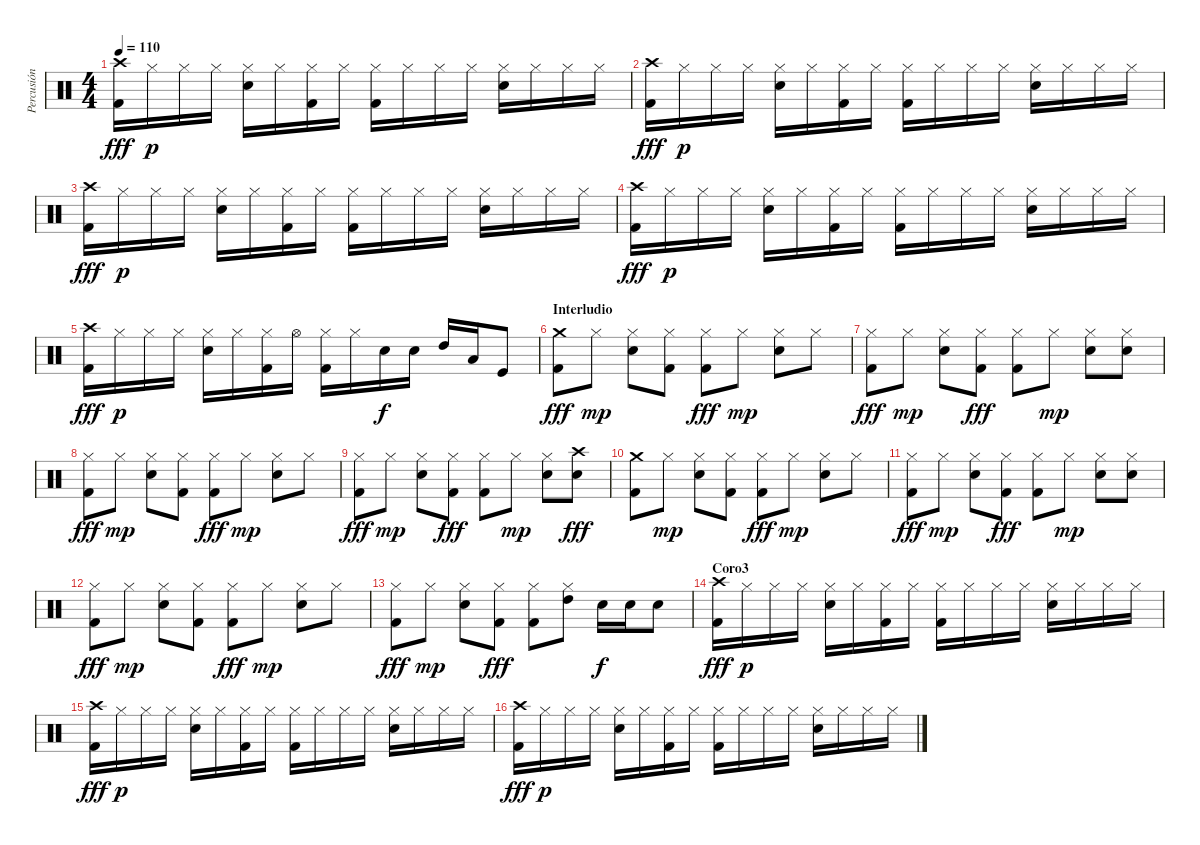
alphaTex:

\track ("Percusión" "Percusión") {instrument percussion}
\staff {score}
\articulation defaults
\ts (4 4)
\tempo 110
\clef neutral
\ks c
("Crash high (hit)" "Kick (hit) 2").16{dy fff} "Hi-Hat (closed)".16{dy p} "Hi-Hat (closed)".16 "Hi-Hat (closed)".16 ("Hi-Hat (closed)" "Snare (hit) 2").16 "Hi-Hat (closed)".16 ("Hi-Hat (closed)" "Kick (hit) 2").16 "Hi-Hat (closed)".16 ("Hi-Hat (closed)" "Kick (hit) 2").16 "Hi-Hat (closed)".16 "Hi-Hat (closed)".16 "Hi-Hat (closed)".16 ("Hi-Hat (closed)" "Snare (hit) 2").16 "Hi-Hat (closed)".16 "Hi-Hat (closed)".16 "Hi-Hat (closed)".16 |
("Crash high (hit)" "Kick (hit) 2").16{dy fff} "Hi-Hat (closed)".16{dy p} "Hi-Hat (closed)".16 "Hi-Hat (closed)".16 ("Hi-Hat (closed)" "Snare (hit) 2").16 "Hi-Hat (closed)".16 ("Hi-Hat (closed)" "Kick (hit) 2").16 "Hi-Hat (closed)".16 ("Hi-Hat (closed)" "Kick (hit) 2").16 "Hi-Hat (closed)".16 "Hi-Hat (closed)".16 "Hi-Hat (closed)".16 ("Hi-Hat (closed)" "Snare (hit) 2").16 "Hi-Hat (closed)".16 "Hi-Hat (closed)".16 "Hi-Hat (closed)".16 |
("Crash high (hit)" "Kick (hit) 2").16{dy fff} "Hi-Hat (closed)".16{dy p} "Hi-Hat (closed)".16 "Hi-Hat (closed)".16 ("Hi-Hat (closed)" "Snare (hit) 2").16 "Hi-Hat (closed)".16 ("Hi-Hat (closed)" "Kick (hit) 2").16 "Hi-Hat (closed)".16 ("Hi-Hat (closed)" "Kick (hit) 2").16 "Hi-Hat (closed)".16 "Hi-Hat (closed)".16 "Hi-Hat (closed)".16 ("Hi-Hat (closed)" "Snare (hit) 2").16 "Hi-Hat (closed)".16 "Hi-Hat (closed)".16 "Hi-Hat (closed)".16 |
("Crash high (hit)" "Kick (hit) 2").16{dy fff} "Hi-Hat (closed)".16{dy p} "Hi-Hat (closed)".16 "Hi-Hat (closed)".16 ("Hi-Hat (closed)" "Snare (hit) 2").16 "Hi-Hat (closed)".16 ("Hi-Hat (closed)" "Kick (hit) 2").16 "Hi-Hat (closed)".16 ("Hi-Hat (closed)" "Kick (hit) 2").16 "Hi-Hat (closed)".16 "Hi-Hat (closed)".16 "Hi-Hat (closed)".16 ("Hi-Hat (closed)" "Snare (hit) 2").16 "Hi-Hat (closed)".16 "Hi-Hat (closed)".16 "Hi-Hat (closed)".16 |
("Crash high (hit)" "Kick (hit) 2").16{dy fff} "Hi-Hat (closed)".16{dy p} "Hi-Hat (closed)".16 "Hi-Hat (closed)".16 ("Hi-Hat (closed)" "Snare (hit) 2").16 "Hi-Hat (closed)".16 ("Hi-Hat (closed)" "Kick (hit) 2").16 "Hi-Hat (open)".16 ("Hi-Hat (closed)" "Kick (hit) 2").16 "Hi-Hat (closed)".16 "Snare (hit) 2".16{dy f} "Snare (hit) 2".16 "High Tom (hit)".16 "Low Tom (hit)".16 "Kick (hit)".8 |
\section ("" "Interludio")
("Crash medium (hit)" "Kick (hit) 2").8{dy fff} "Hi-Hat (closed)".8{dy mp} ("Hi-Hat (closed)" "Snare (hit) 2").8 ("Hi-Hat (closed)" "Kick (hit) 2").8 ("Hi-Hat (closed)" "Kick (hit) 2").8{dy fff} "Hi-Hat (closed)".8{dy mp} ("Hi-Hat (closed)" "Snare (hit) 2").8 "Hi-Hat (closed)".8 |
("Hi-Hat (closed)" "Kick (hit) 2").8{dy fff} "Hi-Hat (closed)".8{dy mp} ("Hi-Hat (closed)" "Snare (hit) 2").8 ("Hi-Hat (closed)" "Kick (hit) 2").8{dy fff} ("Hi-Hat (closed)" "Kick (hit) 2").8 "Hi-Hat (closed)".8{dy mp} ("Hi-Hat (closed)" "Snare (hit) 2").8 ("Hi-Hat (closed)" "Snare (hit) 2").8 |
("Hi-Hat (closed)" "Kick (hit) 2").8{dy fff} "Hi-Hat (closed)".8{dy mp} ("Hi-Hat (closed)" "Snare (hit) 2").8 ("Hi-Hat (closed)" "Kick (hit) 2").8 ("Hi-Hat (closed)" "Kick (hit) 2").8{dy fff} "Hi-Hat (closed)".8{dy mp} ("Hi-Hat (closed)" "Snare (hit) 2").8 "Hi-Hat (closed)".8 |
("Hi-Hat (closed)" "Kick (hit) 2").8{dy fff} "Hi-Hat (closed)".8{dy mp} ("Hi-Hat (closed)" "Snare (hit) 2").8 ("Hi-Hat (closed)" "Kick (hit) 2").8{dy fff} ("Hi-Hat (closed)" "Kick (hit) 2").8 "Hi-Hat (closed)".8{dy mp} ("Hi-Hat (closed)" "Snare (hit) 2").8 ("Crash high (hit)" "Snare (hit) 2").8{dy fff} |
("Crash medium (hit)" "Kick (hit) 2").8 "Hi-Hat (closed)".8{dy mp} ("Hi-Hat (closed)" "Snare (hit) 2").8 ("Hi-Hat (closed)" "Kick (hit) 2").8 ("Hi-Hat (closed)" "Kick (hit) 2").8{dy fff} "Hi-Hat (closed)".8{dy mp} ("Hi-Hat (closed)" "Snare (hit) 2").8 "Hi-Hat (closed)".8 |
("Hi-Hat (closed)" "Kick (hit) 2").8{dy fff} "Hi-Hat (closed)".8{dy mp} ("Hi-Hat (closed)" "Snare (hit) 2").8 ("Hi-Hat (closed)" "Kick (hit) 2").8{dy fff} ("Hi-Hat (closed)" "Kick (hit) 2").8 "Hi-Hat (closed)".8{dy mp} ("Hi-Hat (closed)" "Snare (hit) 2").8 ("Hi-Hat (closed)" "Snare (hit) 2").8 |
("Hi-Hat (closed)" "Kick (hit) 2").8{dy fff} "Hi-Hat (closed)".8{dy mp} ("Hi-Hat (closed)" "Snare (hit) 2").8 ("Hi-Hat (closed)" "Kick (hit) 2").8 ("Hi-Hat (closed)" "Kick (hit) 2").8{dy fff} "Hi-Hat (closed)".8{dy mp} ("Hi-Hat (closed)" "Snare (hit) 2").8 "Hi-Hat (closed)".8 |
("Hi-Hat (closed)" "Kick (hit) 2").8{dy fff} "Hi-Hat (closed)".8{dy mp} ("Hi-Hat (closed)" "Snare (hit) 2").8 ("Hi-Hat (closed)" "Kick (hit) 2").8{dy fff} ("Hi-Hat (closed)" "Kick (hit) 2").8 ("Hi-Hat (closed)" "High Tom (hit)").8 "Snare (hit) 2".16{dy f} "Snare (hit) 2".16 "Snare (hit) 2".8 |
\section ("" "Coro3")
("Crash high (hit)" "Kick (hit) 2").16{dy fff} "Hi-Hat (closed)".16{dy p} "Hi-Hat (closed)".16 "Hi-Hat (closed)".16 ("Hi-Hat (closed)" "Snare (hit) 2").16 "Hi-Hat (closed)".16 ("Hi-Hat (closed)" "Kick (hit) 2").16 "Hi-Hat (closed)".16 ("Hi-Hat (closed)" "Kick (hit) 2").16 "Hi-Hat (closed)".16 "Hi-Hat (closed)".16 "Hi-Hat (closed)".16 ("Hi-Hat (closed)" "Snare (hit) 2").16 "Hi-Hat (closed)".16 "Hi-Hat (closed)".16 "Hi-Hat (closed)".16 |
("Crash high (hit)" "Kick (hit) 2").16{dy fff} "Hi-Hat (closed)".16{dy p} "Hi-Hat (closed)".16 "Hi-Hat (closed)".16 ("Hi-Hat (closed)" "Snare (hit) 2").16 "Hi-Hat (closed)".16 ("Hi-Hat (closed)" "Kick (hit) 2").16 "Hi-Hat (closed)".16 ("Hi-Hat (closed)" "Kick (hit) 2").16 "Hi-Hat (closed)".16 "Hi-Hat (closed)".16 "Hi-Hat (closed)".16 ("Hi-Hat (closed)" "Snare (hit) 2").16 "Hi-Hat (closed)".16 "Hi-Hat (closed)".16 "Hi-Hat (closed)".16 |
("Crash high (hit)" "Kick (hit) 2").16{dy fff} "Hi-Hat (closed)".16{dy p} "Hi-Hat (closed)".16 "Hi-Hat (closed)".16 ("Hi-Hat (closed)" "Snare (hit) 2").16 "Hi-Hat (closed)".16 ("Hi-Hat (closed)" "Kick (hit) 2").16 "Hi-Hat (closed)".16 ("Hi-Hat (closed)" "Kick (hit) 2").16 "Hi-Hat (closed)".16 "Hi-Hat (closed)".16 "Hi-Hat (closed)".16 ("Hi-Hat (closed)" "Snare (hit) 2").16 "Hi-Hat (closed)".16 "Hi-Hat (closed)".16 "Hi-Hat (closed)".16
